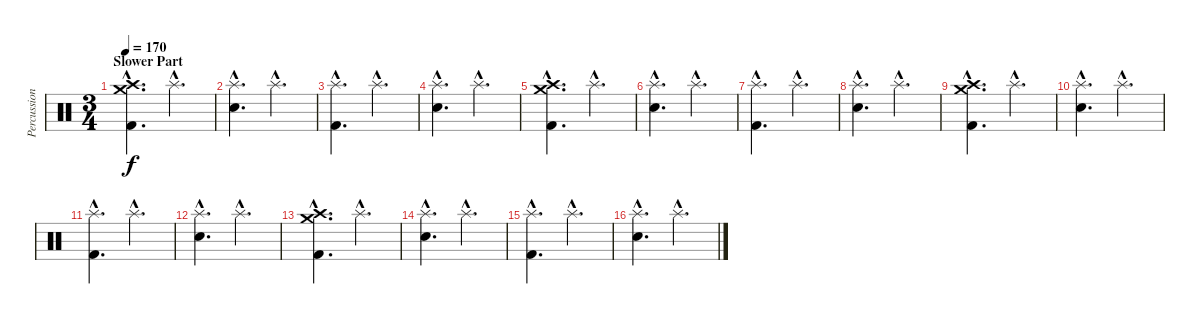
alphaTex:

\track ("Percussion" "Percussion") {instrument percussion}
\staff {score}
\articulation defaults
\ts (3 4)
\section ("" "Slower Part")
\tempo 170
\clef neutral
\ks c
("Crash medium (hit)"{hac} "Crash high (hit)"{hac} "Kick (hit) 2"{hac}).4{d dy f} "Splash (hit)"{hac}.4{d} |
("Splash (hit)"{hac} "Snare (hit) 2"{hac}).4{d} "Splash (hit)"{hac}.4{d} |
("Splash (hit)"{hac} "Kick (hit) 2"{hac}).4{d} "Splash (hit)"{hac}.4{d} |
("Splash (hit)"{hac} "Snare (hit) 2"{hac}).4{d} "Splash (hit)"{hac}.4{d} |
("Crash medium (hit)"{hac} "Crash high (hit)"{hac} "Kick (hit) 2"{hac}).4{d} "Splash (hit)"{hac}.4{d} |
("Splash (hit)"{hac} "Snare (hit) 2"{hac}).4{d} "Splash (hit)"{hac}.4{d} |
("Splash (hit)"{hac} "Kick (hit) 2"{hac}).4{d} "Splash (hit)"{hac}.4{d} |
("Splash (hit)"{hac} "Snare (hit) 2"{hac}).4{d} "Splash (hit)"{hac}.4{d} |
("Crash medium (hit)"{hac} "Crash high (hit)"{hac} "Kick (hit) 2"{hac}).4{d} "Splash (hit)"{hac}.4{d} |
("Splash (hit)"{hac} "Snare (hit) 2"{hac}).4{d} "Splash (hit)"{hac}.4{d} |
("Splash (hit)"{hac} "Kick (hit) 2"{hac}).4{d} "Splash (hit)"{hac}.4{d} |
("Splash (hit)"{hac} "Snare (hit) 2"{hac}).4{d} "Splash (hit)"{hac}.4{d} |
("Crash medium (hit)"{hac} "Crash high (hit)"{hac} "Kick (hit) 2"{hac}).4{d} "Splash (hit)"{hac}.4{d} |
("Splash (hit)"{hac} "Snare (hit) 2"{hac}).4{d} "Splash (hit)"{hac}.4{d} |
("Splash (hit)"{hac} "Kick (hit) 2"{hac}).4{d} "Splash (hit)"{hac}.4{d} |
("Splash (hit)"{hac} "Snare (hit) 2"{hac}).4{d} "Splash (hit)"{hac}.4{d}
